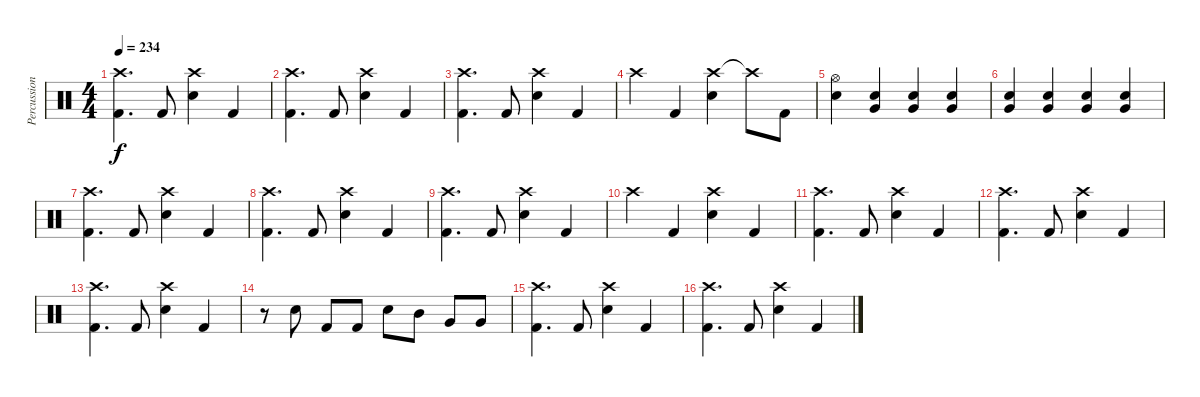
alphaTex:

\track ("Percussions" "Percussion") {instrument percussion}
\staff {score}
\articulation defaults
\ts (4 4)
\tempo 234
\clef neutral
\ks c
("Crash high (hit)" "Kick (hit) 2").4{d dy f} "Kick (hit) 2".8 ("Crash high (hit)" "Snare (hit) 2").4 "Kick (hit) 2".4 |
("Crash high (hit)" "Kick (hit) 2").4{d} "Kick (hit) 2".8 ("Crash high (hit)" "Snare (hit) 2").4 "Kick (hit) 2".4 |
("Crash high (hit)" "Kick (hit) 2").4{d} "Kick (hit) 2".8 ("Crash high (hit)" "Snare (hit) 2").4 "Kick (hit) 2".4 |
"Crash high (hit)".4 "Kick (hit) 2".4 ("Crash high (hit)" "Snare (hit) 2").4 "Crash high (hit)"{t}.8 "Kick (hit) 2".8 |
("Hi-Hat (open)" "Snare (hit) 2").4 ("Snare (hit) 2" "Very Low Tom (hit)").4 ("Snare (hit) 2" "Very Low Tom (hit)").4 ("Snare (hit) 2" "Very Low Tom (hit)").4 |
("Snare (hit) 2" "Very Low Tom (hit)").4 ("Snare (hit) 2" "Very Low Tom (hit)").4 ("Snare (hit) 2" "Very Low Tom (hit)").4 ("Snare (hit) 2" "Very Low Tom (hit)").4 |
("Crash high (hit)" "Kick (hit) 2").4{d} "Kick (hit) 2".8 ("Crash high (hit)" "Snare (hit) 2").4 "Kick (hit) 2".4 |
("Crash high (hit)" "Kick (hit) 2").4{d} "Kick (hit) 2".8 ("Crash high (hit)" "Snare (hit) 2").4 "Kick (hit) 2".4 |
("Crash high (hit)" "Kick (hit) 2").4{d} "Kick (hit) 2".8 ("Crash high (hit)" "Snare (hit) 2").4 "Kick (hit) 2".4 |
"Crash high (hit)".4 "Kick (hit) 2".4 ("Crash high (hit)" "Snare (hit) 2").4 "Kick (hit) 2".4 |
("Crash high (hit)" "Kick (hit) 2").4{d} "Kick (hit) 2".8 ("Crash high (hit)" "Snare (hit) 2").4 "Kick (hit) 2".4 |
("Crash high (hit)" "Kick (hit) 2").4{d} "Kick (hit) 2".8 ("Crash high (hit)" "Snare (hit) 2").4 "Kick (hit) 2".4 |
("Crash high (hit)" "Kick (hit) 2").4{d} "Kick (hit) 2".8 ("Crash high (hit)" "Snare (hit) 2").4 "Kick (hit) 2".4 |
r.8 "Snare (hit) 2".8 "Kick (hit) 2".8 "Kick (hit) 2".8 "Snare (hit) 2".8 "Mid Tom (hit)".8 "Very Low Tom (hit)".8 "Very Low Tom (hit)".8 |
("Crash high (hit)" "Kick (hit) 2").4{d} "Kick (hit) 2".8 ("Crash high (hit)" "Snare (hit) 2").4 "Kick (hit) 2".4 |
("Crash high (hit)" "Kick (hit) 2").4{d} "Kick (hit) 2".8 ("Crash high (hit)" "Snare (hit) 2").4 "Kick (hit) 2".4
